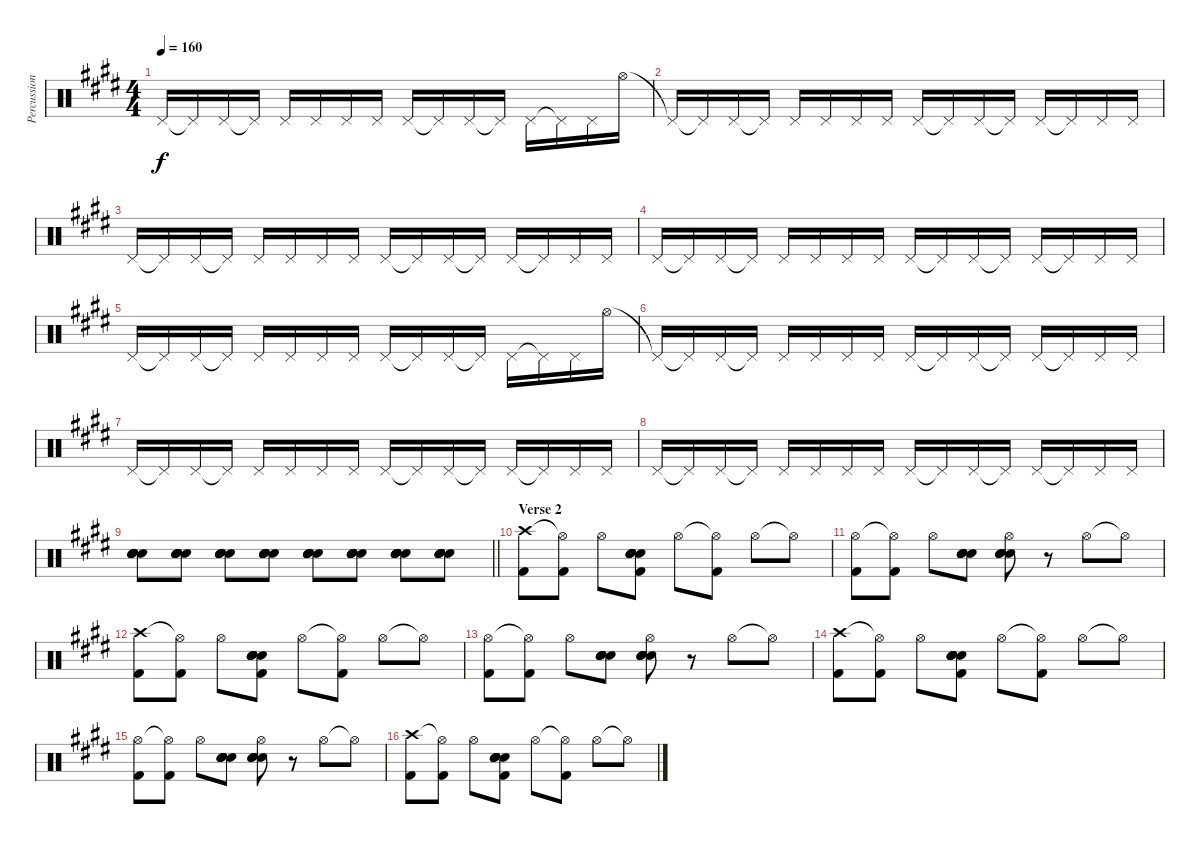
\track ("Percussion" "Percussion") {instrument percussion}
\staff {score}
\articulation defaults
\ts (4 4)
\tempo 160
\clef neutral
\ks c#minor "Pedal Hi-Hat (hit)".16{dy f} "Pedal Hi-Hat (hit)"{t}.16 "Pedal Hi-Hat (hit)".16 "Pedal Hi-Hat (hit)"{t}.16 "Pedal Hi-Hat (hit)".16 "Pedal Hi-Hat (hit)".16 "Pedal Hi-Hat (hit)".16 "Pedal Hi-Hat (hit)".16 "Pedal Hi-Hat (hit)".16 "Pedal Hi-Hat (hit)"{t}.16 "Pedal Hi-Hat (hit)".16 "Pedal Hi-Hat (hit)"{t}.16 "Pedal Hi-Hat (hit)".16 "Pedal Hi-Hat (hit)"{t}.16 "Pedal Hi-Hat (hit)".16 "Hi-Hat (open)".16
|
"Pedal Hi-Hat (hit)"{t}.16 "Pedal Hi-Hat (hit)"{t}.16 "Pedal Hi-Hat (hit)".16 "Pedal Hi-Hat (hit)"{t}.16 "Pedal Hi-Hat (hit)".16 "Pedal Hi-Hat (hit)".16 "Pedal Hi-Hat (hit)".16 "Pedal Hi-Hat (hit)".16 "Pedal Hi-Hat (hit)".16 "Pedal Hi-Hat (hit)"{t}.16 "Pedal Hi-Hat (hit)".16 "Pedal Hi-Hat (hit)"{t}.16 "Pedal Hi-Hat (hit)".16 "Pedal Hi-Hat (hit)"{t}.16 "Pedal Hi-Hat (hit)".16 "Pedal Hi-Hat (hit)".16 |
"Pedal Hi-Hat (hit)".16 "Pedal Hi-Hat (hit)"{t}.16 "Pedal Hi-Hat (hit)".16 "Pedal Hi-Hat (hit)"{t}.16 "Pedal Hi-Hat (hit)".16 "Pedal Hi-Hat (hit)".16 "Pedal Hi-Hat (hit)".16 "Pedal Hi-Hat (hit)".16 "Pedal Hi-Hat (hit)".16 "Pedal Hi-Hat (hit)"{t}.16 "Pedal Hi-Hat (hit)".16 "Pedal Hi-Hat (hit)"{t}.16 "Pedal Hi-Hat (hit)".16 "Pedal Hi-Hat (hit)"{t}.16 "Pedal Hi-Hat (hit)".16 "Pedal Hi-Hat (hit)".16 |
"Pedal Hi-Hat (hit)".16 "Pedal Hi-Hat (hit)"{t}.16 "Pedal Hi-Hat (hit)".16 "Pedal Hi-Hat (hit)"{t}.16 "Pedal Hi-Hat (hit)".16 "Pedal Hi-Hat (hit)".16 "Pedal Hi-Hat (hit)".16 "Pedal Hi-Hat (hit)".16 "Pedal Hi-Hat (hit)".16 "Pedal Hi-Hat (hit)"{t}.16 "Pedal Hi-Hat (hit)".16 "Pedal Hi-Hat (hit)"{t}.16 "Pedal Hi-Hat (hit)".16 "Pedal Hi-Hat (hit)"{t}.16 "Pedal Hi-Hat (hit)".16 "Pedal Hi-Hat (hit)".16 |
"Pedal Hi-Hat (hit)".16 "Pedal Hi-Hat (hit)"{t}.16 "Pedal Hi-Hat (hit)".16 "Pedal Hi-Hat (hit)"{t}.16 "Pedal Hi-Hat (hit)".16 "Pedal Hi-Hat (hit)".16 "Pedal Hi-Hat (hit)".16 "Pedal Hi-Hat (hit)".16 "Pedal Hi-Hat (hit)".16 "Pedal Hi-Hat (hit)"{t}.16 "Pedal Hi-Hat (hit)".16 "Pedal Hi-Hat (hit)"{t}.16 "Pedal Hi-Hat (hit)".16 "Pedal Hi-Hat (hit)"{t}.16 "Pedal Hi-Hat (hit)".16 "Hi-Hat (open)".16 |
"Pedal Hi-Hat (hit)"{t}.16 "Pedal Hi-Hat (hit)"{t}.16 "Pedal Hi-Hat (hit)".16 "Pedal Hi-Hat (hit)"{t}.16 "Pedal Hi-Hat (hit)".16 "Pedal Hi-Hat (hit)".16 "Pedal Hi-Hat (hit)".16 "Pedal Hi-Hat (hit)".16 "Pedal Hi-Hat (hit)".16 "Pedal Hi-Hat (hit)"{t}.16 "Pedal Hi-Hat (hit)".16 "Pedal Hi-Hat (hit)"{t}.16 "Pedal Hi-Hat (hit)".16 "Pedal Hi-Hat (hit)"{t}.16 "Pedal Hi-Hat (hit)".16 "Pedal Hi-Hat (hit)".16 |
"Pedal Hi-Hat (hit)".16 "Pedal Hi-Hat (hit)"{t}.16 "Pedal Hi-Hat (hit)".16 "Pedal Hi-Hat (hit)"{t}.16 "Pedal Hi-Hat (hit)".16 "Pedal Hi-Hat (hit)".16 "Pedal Hi-Hat (hit)".16 "Pedal Hi-Hat (hit)".16 "Pedal Hi-Hat (hit)".16 "Pedal Hi-Hat (hit)"{t}.16 "Pedal Hi-Hat (hit)".16 "Pedal Hi-Hat (hit)"{t}.16 "Pedal Hi-Hat (hit)".16 "Pedal Hi-Hat (hit)"{t}.16 "Pedal Hi-Hat (hit)".16 "Pedal Hi-Hat (hit)".16 |
"Pedal Hi-Hat (hit)".16{volume 16} "Pedal Hi-Hat (hit)"{t}.16 "Pedal Hi-Hat (hit)".16 "Pedal Hi-Hat (hit)"{t}.16 "Pedal Hi-Hat (hit)".16 "Pedal Hi-Hat (hit)".16 "Pedal Hi-Hat (hit)".16 "Pedal Hi-Hat (hit)".16 "Pedal Hi-Hat (hit)".16 "Pedal Hi-Hat (hit)"{t}.16 "Pedal Hi-Hat (hit)".16 "Pedal Hi-Hat (hit)"{t}.16 "Pedal Hi-Hat (hit)".16 "Pedal Hi-Hat (hit)"{t}.16 "Pedal Hi-Hat (hit)".16 "Pedal Hi-Hat (hit)".16 |
\barLineRight lightlight
("Electric Snare (hit)" "Electric Snare (hit)" "Electric Snare (hit)" "Electric Snare (hit)" "Electric Snare (hit)" "Electric Snare (hit)").8 ("Electric Snare (hit)" "Electric Snare (hit)" "Electric Snare (hit)" "Electric Snare (hit)" "Electric Snare (hit)" "Electric Snare (hit)").8 ("Electric Snare (hit)" "Electric Snare (hit)" "Electric Snare (hit)" "Electric Snare (hit)" "Electric Snare (hit)" "Electric Snare (hit)").8 ("Electric Snare (hit)" "Electric Snare (hit)" "Electric Snare (hit)" "Electric Snare (hit)" "Electric Snare (hit)" "Electric Snare (hit)").8 ("Electric Snare (hit)" "Electric Snare (hit)" "Electric Snare (hit)" "Electric Snare (hit)" "Electric Snare (hit)" "Electric Snare (hit)").8 ("Electric Snare (hit)" "Electric Snare (hit)" "Electric Snare (hit)" "Electric Snare (hit)" "Electric Snare (hit)" "Electric Snare (hit)").8 ("Electric Snare (hit)" "Electric Snare (hit)" "Electric Snare (hit)" "Electric Snare (hit)" "Electric Snare (hit)" "Electric Snare (hit)").8 ("Electric Snare (hit)" "Electric Snare (hit)" "Electric Snare (hit)" "Electric Snare (hit)" "Electric Snare (hit)" "Electric Snare (hit)").8 |
\section ("" "Verse 2")
("Crash high (hit)" "Kick (hit) 2").8 ("Hi-Hat (open)"{t} "Kick (hit) 2").8 "Hi-Hat (open)".8 ("Electric Snare (hit)" "Electric Snare (hit)" "Electric Snare (hit)" "Electric Snare (hit)" "Electric Snare (hit)" "Kick (hit) 2").8 "Hi-Hat (open)".8 ("Hi-Hat (open)"{t} "Kick (hit) 2").8 "Hi-Hat (open)".8 "Hi-Hat (open)"{t}.8 |
("Hi-Hat (open)" "Kick (hit) 2").8 ("Hi-Hat (open)"{t} "Kick (hit) 2").8 "Hi-Hat (open)".8 ("Electric Snare (hit)" "Electric Snare (hit)" "Electric Snare (hit)" "Electric Snare (hit)" "Electric Snare (hit)").8 ("Electric Snare (hit)" "Electric Snare (hit)" "Hi-Hat (open)" "Electric Snare (hit)" "Electric Snare (hit)").8 r.8 "Hi-Hat (open)".8 "Hi-Hat (open)"{t}.8 |
("Crash high (hit)" "Kick (hit) 2").8 ("Hi-Hat (open)"{t} "Kick (hit) 2").8 "Hi-Hat (open)".8 ("Electric Snare (hit)" "Electric Snare (hit)" "Electric Snare (hit)" "Electric Snare (hit)" "Electric Snare (hit)" "Kick (hit) 2").8 "Hi-Hat (open)".8 ("Hi-Hat (open)"{t} "Kick (hit) 2").8 "Hi-Hat (open)".8 "Hi-Hat (open)"{t}.8 |
("Hi-Hat (open)" "Kick (hit) 2").8 ("Hi-Hat (open)"{t} "Kick (hit) 2").8 "Hi-Hat (open)".8 ("Electric Snare (hit)" "Electric Snare (hit)" "Electric Snare (hit)" "Electric Snare (hit)" "Electric Snare (hit)").8 ("Electric Snare (hit)" "Electric Snare (hit)" "Hi-Hat (open)" "Electric Snare (hit)" "Electric Snare (hit)").8 r.8 "Hi-Hat (open)".8 "Hi-Hat (open)"{t}.8 |
("Crash high (hit)" "Kick (hit) 2").8 ("Hi-Hat (open)"{t} "Kick (hit) 2").8 "Hi-Hat (open)".8 ("Electric Snare (hit)" "Electric Snare (hit)" "Electric Snare (hit)" "Electric Snare (hit)" "Electric Snare (hit)" "Kick (hit) 2").8 "Hi-Hat (open)".8 ("Hi-Hat (open)"{t} "Kick (hit) 2").8 "Hi-Hat (open)".8 "Hi-Hat (open)"{t}.8 |
("Hi-Hat (open)" "Kick (hit) 2").8 ("Hi-Hat (open)"{t} "Kick (hit) 2").8 "Hi-Hat (open)".8 ("Electric Snare (hit)" "Electric Snare (hit)" "Electric Snare (hit)" "Electric Snare (hit)" "Electric Snare (hit)").8 ("Electric Snare (hit)" "Electric Snare (hit)" "Hi-Hat (open)" "Electric Snare (hit)" "Electric Snare (hit)").8 r.8 "Hi-Hat (open)".8 "Hi-Hat (open)"{t}.8 |
("Crash high (hit)" "Kick (hit) 2").8 ("Hi-Hat (open)"{t} "Kick (hit) 2").8 "Hi-Hat (open)".8 ("Electric Snare (hit)" "Electric Snare (hit)" "Electric Snare (hit)" "Electric Snare (hit)" "Electric Snare (hit)" "Kick (hit) 2").8 "Hi-Hat (open)".8 ("Hi-Hat (open)"{t} "Kick (hit) 2").8 "Hi-Hat (open)".8 "Hi-Hat (open)"{t}.8
